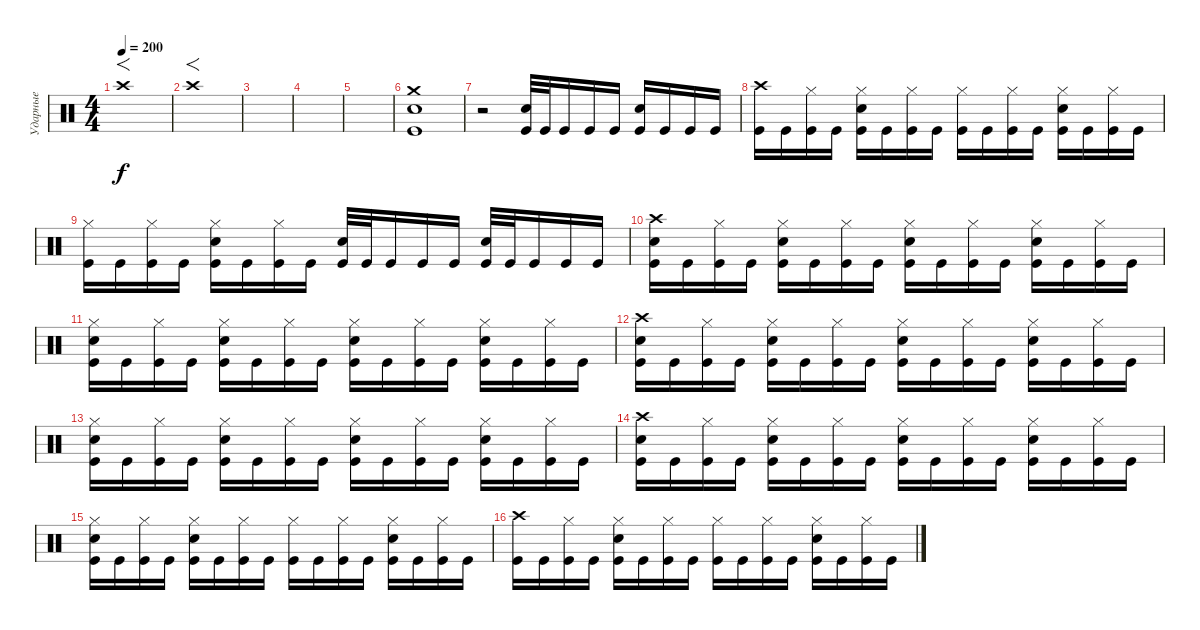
\track ("Ударные" "Ударные") {instrument percussion}
\staff {score}
\articulation defaults
\ts (4 4)
\tempo 200
\clef neutral
\ks c "Crash high (hit)".1{f dy f}
|
"Crash high (hit)".1{f} |
|
|
|
("Crash medium (hit)" "Electric Snare (hit)" "Kick (hit)").1 |
r.2 ("Electric Snare (hit)" "Kick (hit)").32 "Kick (hit)".32 "Kick (hit)".16 "Kick (hit)".16 "Kick (hit)".16 ("Electric Snare (hit)" "Kick (hit)").16 "Kick (hit)".16 "Kick (hit)".16 "Kick (hit)".16 |
("Crash high (hit)" "Kick (hit)").16 "Kick (hit)".16 ("Hi-Hat (closed)" "Kick (hit)").16 "Kick (hit)".16 ("Hi-Hat (closed)" "Electric Snare (hit)" "Kick (hit)").16 "Kick (hit)".16 ("Hi-Hat (closed)" "Kick (hit)").16 "Kick (hit)".16 ("Hi-Hat (closed)" "Kick (hit)").16 "Kick (hit)".16 ("Hi-Hat (closed)" "Kick (hit)").16 "Kick (hit)".16 ("Hi-Hat (closed)" "Electric Snare (hit)" "Kick (hit)").16 "Kick (hit)".16 ("Hi-Hat (closed)" "Kick (hit)").16 "Kick (hit)".16 |
("Hi-Hat (closed)" "Kick (hit)").16 "Kick (hit)".16 ("Hi-Hat (closed)" "Kick (hit)").16 "Kick (hit)".16 ("Hi-Hat (closed)" "Electric Snare (hit)" "Kick (hit)").16 "Kick (hit)".16 ("Hi-Hat (closed)" "Kick (hit)").16 "Kick (hit)".16 ("Electric Snare (hit)" "Kick (hit)").32 "Kick (hit)".32 "Kick (hit)".16 "Kick (hit)".16 "Kick (hit)".16 ("Electric Snare (hit)" "Kick (hit)").32 "Kick (hit)".32 "Kick (hit)".16 "Kick (hit)".16 "Kick (hit)".16 |
("Crash high (hit)" "Electric Snare (hit)" "Kick (hit)").16 "Kick (hit)".16 ("Hi-Hat (closed)" "Kick (hit)").16 "Kick (hit)".16 ("Hi-Hat (closed)" "Electric Snare (hit)" "Kick (hit)").16 "Kick (hit)".16 ("Hi-Hat (closed)" "Kick (hit)").16 "Kick (hit)".16 ("Hi-Hat (closed)" "Electric Snare (hit)" "Kick (hit)").16 "Kick (hit)".16 ("Hi-Hat (closed)" "Kick (hit)").16 "Kick (hit)".16 ("Hi-Hat (closed)" "Electric Snare (hit)" "Kick (hit)").16 "Kick (hit)".16 ("Hi-Hat (closed)" "Kick (hit)").16 "Kick (hit)".16 |
("Hi-Hat (closed)" "Electric Snare (hit)" "Kick (hit)").16 "Kick (hit)".16 ("Hi-Hat (closed)" "Kick (hit)").16 "Kick (hit)".16 ("Hi-Hat (closed)" "Electric Snare (hit)" "Kick (hit)").16 "Kick (hit)".16 ("Hi-Hat (closed)" "Kick (hit)").16 "Kick (hit)".16 ("Hi-Hat (closed)" "Electric Snare (hit)" "Kick (hit)").16 "Kick (hit)".16 ("Hi-Hat (closed)" "Kick (hit)").16 "Kick (hit)".16 ("Hi-Hat (closed)" "Electric Snare (hit)" "Kick (hit)").16 "Kick (hit)".16 ("Hi-Hat (closed)" "Kick (hit)").16 "Kick (hit)".16 |
("Crash high (hit)" "Electric Snare (hit)" "Kick (hit)").16 "Kick (hit)".16 ("Hi-Hat (closed)" "Kick (hit)").16 "Kick (hit)".16 ("Hi-Hat (closed)" "Electric Snare (hit)" "Kick (hit)").16 "Kick (hit)".16 ("Hi-Hat (closed)" "Kick (hit)").16 "Kick (hit)".16 ("Hi-Hat (closed)" "Electric Snare (hit)" "Kick (hit)").16 "Kick (hit)".16 ("Hi-Hat (closed)" "Kick (hit)").16 "Kick (hit)".16 ("Hi-Hat (closed)" "Electric Snare (hit)" "Kick (hit)").16 "Kick (hit)".16 ("Hi-Hat (closed)" "Kick (hit)").16 "Kick (hit)".16 |
("Hi-Hat (closed)" "Electric Snare (hit)" "Kick (hit)").16 "Kick (hit)".16 ("Hi-Hat (closed)" "Kick (hit)").16 "Kick (hit)".16 ("Hi-Hat (closed)" "Electric Snare (hit)" "Kick (hit)").16 "Kick (hit)".16 ("Hi-Hat (closed)" "Kick (hit)").16 "Kick (hit)".16 ("Hi-Hat (closed)" "Electric Snare (hit)" "Kick (hit)").16 "Kick (hit)".16 ("Hi-Hat (closed)" "Kick (hit)").16 "Kick (hit)".16 ("Hi-Hat (closed)" "Electric Snare (hit)" "Kick (hit)").16 "Kick (hit)".16 ("Hi-Hat (closed)" "Kick (hit)").16 "Kick (hit)".16 |
("Crash high (hit)" "Electric Snare (hit)" "Kick (hit)").16 "Kick (hit)".16 ("Hi-Hat (closed)" "Kick (hit)").16 "Kick (hit)".16 ("Hi-Hat (closed)" "Electric Snare (hit)" "Kick (hit)").16 "Kick (hit)".16 ("Hi-Hat (closed)" "Kick (hit)").16 "Kick (hit)".16 ("Hi-Hat (closed)" "Electric Snare (hit)" "Kick (hit)").16 "Kick (hit)".16 ("Hi-Hat (closed)" "Kick (hit)").16 "Kick (hit)".16 ("Hi-Hat (closed)" "Electric Snare (hit)" "Kick (hit)").16 "Kick (hit)".16 ("Hi-Hat (closed)" "Kick (hit)").16 "Kick (hit)".16 |
("Hi-Hat (closed)" "Electric Snare (hit)" "Kick (hit)").16 "Kick (hit)".16 ("Hi-Hat (closed)" "Kick (hit)").16 "Kick (hit)".16 ("Hi-Hat (closed)" "Electric Snare (hit)" "Kick (hit)").16 "Kick (hit)".16 ("Hi-Hat (closed)" "Kick (hit)").16 "Kick (hit)".16 ("Hi-Hat (closed)" "Kick (hit)").16 "Kick (hit)".16 ("Hi-Hat (closed)" "Kick (hit)").16 "Kick (hit)".16 ("Hi-Hat (closed)" "Electric Snare (hit)" "Kick (hit)").16 "Kick (hit)".16 ("Hi-Hat (closed)" "Kick (hit)").16 "Kick (hit)".16 |
("Crash high (hit)" "Kick (hit)").16 "Kick (hit)".16 ("Hi-Hat (closed)" "Kick (hit)").16 "Kick (hit)".16 ("Hi-Hat (closed)" "Electric Snare (hit)" "Kick (hit)").16 "Kick (hit)".16 ("Hi-Hat (closed)" "Kick (hit)").16 "Kick (hit)".16 ("Hi-Hat (closed)" "Kick (hit)").16 "Kick (hit)".16 ("Hi-Hat (closed)" "Kick (hit)").16 "Kick (hit)".16 ("Hi-Hat (closed)" "Electric Snare (hit)" "Kick (hit)").16 "Kick (hit)".16 ("Hi-Hat (closed)" "Kick (hit)").16 "Kick (hit)".16
